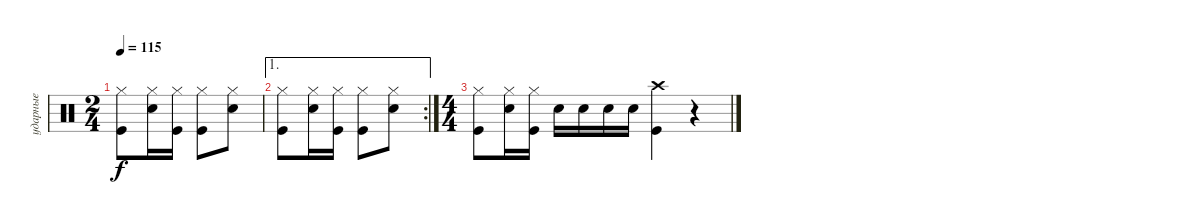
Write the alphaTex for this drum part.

\track ("ударные" "ударные") {instrument percussion}
\staff {score}
\articulation defaults
\ts (2 4)
\tempo 115
\clef neutral
\ks aminor
("Kick (hit)" "Hi-Hat (closed)").8{dy f} ("Snare (hit) 2" "Hi-Hat (closed)").16 ("Kick (hit)" "Hi-Hat (closed)").16 ("Kick (hit)" "Hi-Hat (closed)").8 ("Snare (hit) 2" "Hi-Hat (closed)").8 |
\ae 1
\rc 2
("Kick (hit)" "Hi-Hat (closed)").8 ("Snare (hit) 2" "Hi-Hat (closed)").16 ("Kick (hit)" "Hi-Hat (closed)").16 ("Kick (hit)" "Hi-Hat (closed)").8 ("Snare (hit) 2" "Hi-Hat (closed)").8 |
\ts (4 4)
("Kick (hit)" "Hi-Hat (closed)").8 ("Snare (hit) 2" "Hi-Hat (closed)").16 ("Kick (hit)" "Hi-Hat (closed)").16 "Snare (hit) 2".16 "Snare (hit) 2".16 "Snare (hit) 2".16 "Snare (hit) 2".16 ("Kick (hit)" "Crash high (hit)").4 r.4
